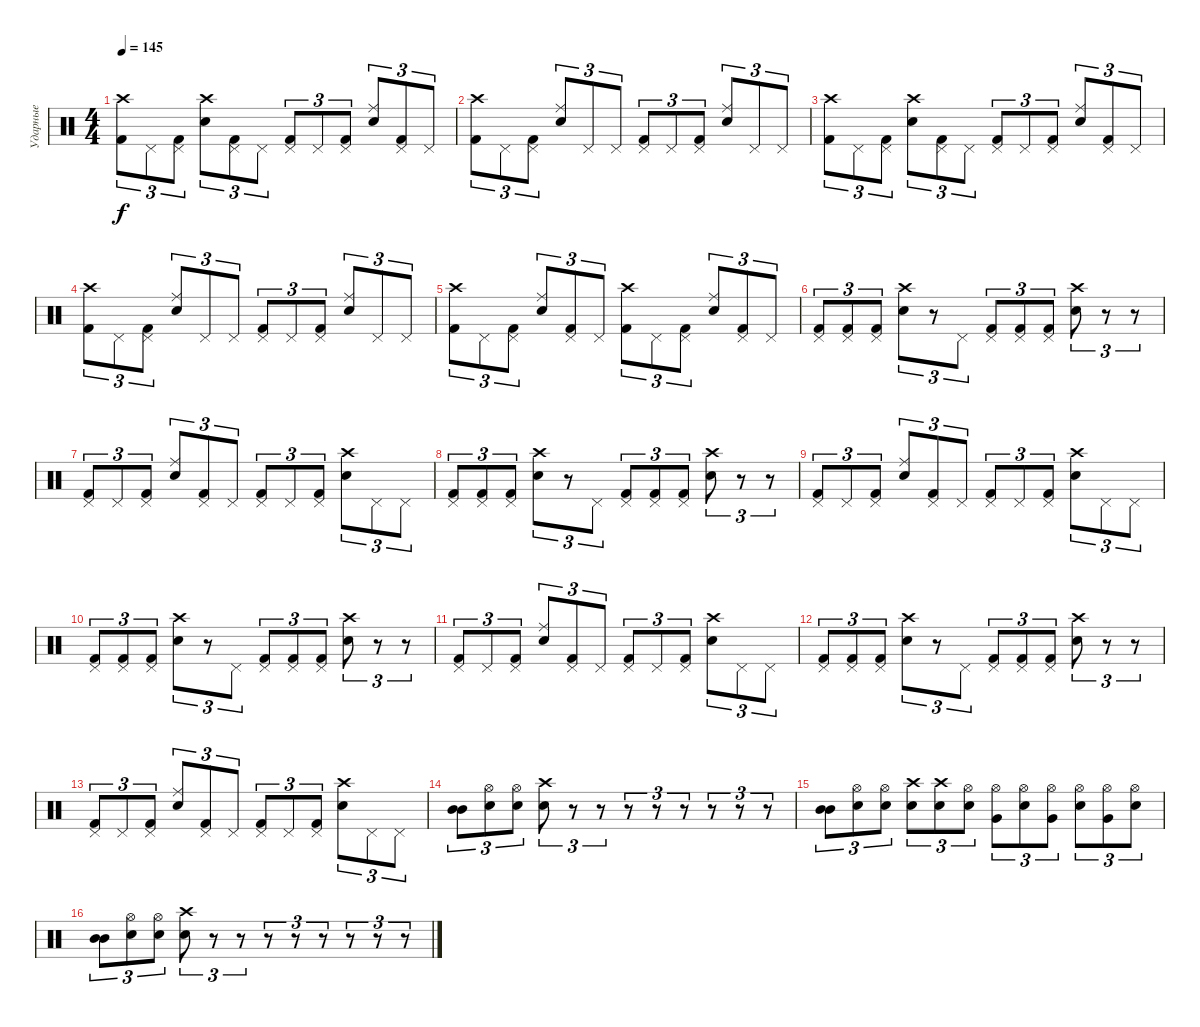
\track ("Ударные" "Ударные") {instrument percussion}
\staff {score}
\articulation defaults
\ts (4 4)
\tempo 145
\clef neutral
\ks c
("Kick (hit) 2" "Crash high (hit)").8{tu (3 2) dy f} "Pedal Hi-Hat (hit)".8{tu (3 2)} ("Kick (hit) 2" "Pedal Hi-Hat (hit)").8{tu (3 2)} ("Electric Snare (hit)" "Crash high (hit)").8{tu (3 2)} ("Kick (hit) 2" "Pedal Hi-Hat (hit)").8{tu (3 2)} "Pedal Hi-Hat (hit)".8{tu (3 2)} ("Kick (hit) 2" "Pedal Hi-Hat (hit)").8{tu (3 2)} "Pedal Hi-Hat (hit)".8{tu (3 2)} ("Pedal Hi-Hat (hit)" "Kick (hit) 2").8{tu (3 2)} ("Electric Snare (hit)" "Ride (middle)").8{tu (3 2)} ("Kick (hit) 2" "Pedal Hi-Hat (hit)").8{tu (3 2)} "Pedal Hi-Hat (hit)".8{tu (3 2)} |
("Kick (hit) 2" "Crash high (hit)").8{tu (3 2)} "Pedal Hi-Hat (hit)".8{tu (3 2)} ("Kick (hit) 2" "Pedal Hi-Hat (hit)").8{tu (3 2)} ("Electric Snare (hit)" "Ride (middle)").8{tu (3 2)} "Pedal Hi-Hat (hit)".8{tu (3 2)} "Pedal Hi-Hat (hit)".8{tu (3 2)} ("Kick (hit) 2" "Pedal Hi-Hat (hit)").8{tu (3 2)} "Pedal Hi-Hat (hit)".8{tu (3 2)} ("Pedal Hi-Hat (hit)" "Kick (hit) 2").8{tu (3 2)} ("Electric Snare (hit)" "Ride (middle)").8{tu (3 2)} "Pedal Hi-Hat (hit)".8{tu (3 2)} "Pedal Hi-Hat (hit)".8{tu (3 2)} |
("Kick (hit) 2" "Crash high (hit)").8{tu (3 2)} "Pedal Hi-Hat (hit)".8{tu (3 2)} ("Kick (hit) 2" "Pedal Hi-Hat (hit)").8{tu (3 2)} ("Electric Snare (hit)" "Crash high (hit)").8{tu (3 2)} ("Kick (hit) 2" "Pedal Hi-Hat (hit)").8{tu (3 2)} "Pedal Hi-Hat (hit)".8{tu (3 2)} ("Kick (hit) 2" "Pedal Hi-Hat (hit)").8{tu (3 2)} "Pedal Hi-Hat (hit)".8{tu (3 2)} ("Pedal Hi-Hat (hit)" "Kick (hit) 2").8{tu (3 2)} ("Electric Snare (hit)" "Ride (middle)").8{tu (3 2)} ("Kick (hit) 2" "Pedal Hi-Hat (hit)").8{tu (3 2)} "Pedal Hi-Hat (hit)".8{tu (3 2)} |
("Kick (hit) 2" "Crash high (hit)").8{tu (3 2)} "Pedal Hi-Hat (hit)".8{tu (3 2)} ("Kick (hit) 2" "Pedal Hi-Hat (hit)").8{tu (3 2)} ("Electric Snare (hit)" "Ride (middle)").8{tu (3 2)} "Pedal Hi-Hat (hit)".8{tu (3 2)} "Pedal Hi-Hat (hit)".8{tu (3 2)} ("Kick (hit) 2" "Pedal Hi-Hat (hit)").8{tu (3 2)} "Pedal Hi-Hat (hit)".8{tu (3 2)} ("Pedal Hi-Hat (hit)" "Kick (hit) 2").8{tu (3 2)} ("Electric Snare (hit)" "Ride (middle)").8{tu (3 2)} "Pedal Hi-Hat (hit)".8{tu (3 2)} "Pedal Hi-Hat (hit)".8{tu (3 2)} |
("Kick (hit) 2" "Crash high (hit)").8{tu (3 2)} "Pedal Hi-Hat (hit)".8{tu (3 2)} ("Kick (hit) 2" "Pedal Hi-Hat (hit)").8{tu (3 2)} ("Electric Snare (hit)" "Ride (middle)").8{tu (3 2)} ("Kick (hit) 2" "Pedal Hi-Hat (hit)").8{tu (3 2)} "Pedal Hi-Hat (hit)".8{tu (3 2)} ("Kick (hit) 2" "Crash high (hit)").8{tu (3 2)} "Pedal Hi-Hat (hit)".8{tu (3 2)} ("Pedal Hi-Hat (hit)" "Kick (hit) 2").8{tu (3 2)} ("Electric Snare (hit)" "Ride (middle)").8{tu (3 2)} ("Kick (hit) 2" "Pedal Hi-Hat (hit)").8{tu (3 2)} "Pedal Hi-Hat (hit)".8{tu (3 2)} |
("Kick (hit) 2" "Pedal Hi-Hat (hit)").8{tu (3 2)} ("Kick (hit) 2" "Pedal Hi-Hat (hit)").8{tu (3 2)} ("Kick (hit) 2" "Pedal Hi-Hat (hit)").8{tu (3 2)} ("Crash high (hit)" "Electric Snare (hit)").8{tu (3 2)} r.8{tu (3 2)} "Pedal Hi-Hat (hit)".8{tu (3 2)} ("Kick (hit) 2" "Pedal Hi-Hat (hit)").8{tu (3 2)} ("Kick (hit) 2" "Pedal Hi-Hat (hit)").8{tu (3 2)} ("Kick (hit) 2" "Pedal Hi-Hat (hit)").8{tu (3 2)} ("Electric Snare (hit)" "Crash high (hit)").8{tu (3 2)} r.8{tu (3 2)} r.8{tu (3 2)} |
("Kick (hit) 2" "Pedal Hi-Hat (hit)").8{tu (3 2)} "Pedal Hi-Hat (hit)".8{tu (3 2)} ("Kick (hit) 2" "Pedal Hi-Hat (hit)").8{tu (3 2)} ("Electric Snare (hit)" "Ride (middle)").8{tu (3 2)} ("Kick (hit) 2" "Pedal Hi-Hat (hit)").8{tu (3 2)} "Pedal Hi-Hat (hit)".8{tu (3 2)} ("Kick (hit) 2" "Pedal Hi-Hat (hit)").8{tu (3 2)} "Pedal Hi-Hat (hit)".8{tu (3 2)} ("Pedal Hi-Hat (hit)" "Kick (hit) 2").8{tu (3 2)} ("Electric Snare (hit)" "Crash high (hit)").8{tu (3 2)} "Pedal Hi-Hat (hit)".8{tu (3 2)} "Pedal Hi-Hat (hit)".8{tu (3 2)} |
("Kick (hit) 2" "Pedal Hi-Hat (hit)").8{tu (3 2)} ("Kick (hit) 2" "Pedal Hi-Hat (hit)").8{tu (3 2)} ("Kick (hit) 2" "Pedal Hi-Hat (hit)").8{tu (3 2)} ("Crash high (hit)" "Electric Snare (hit)").8{tu (3 2)} r.8{tu (3 2)} "Pedal Hi-Hat (hit)".8{tu (3 2)} ("Kick (hit) 2" "Pedal Hi-Hat (hit)").8{tu (3 2)} ("Kick (hit) 2" "Pedal Hi-Hat (hit)").8{tu (3 2)} ("Kick (hit) 2" "Pedal Hi-Hat (hit)").8{tu (3 2)} ("Electric Snare (hit)" "Crash high (hit)").8{tu (3 2)} r.8{tu (3 2)} r.8{tu (3 2)} |
("Kick (hit) 2" "Pedal Hi-Hat (hit)").8{tu (3 2)} "Pedal Hi-Hat (hit)".8{tu (3 2)} ("Kick (hit) 2" "Pedal Hi-Hat (hit)").8{tu (3 2)} ("Electric Snare (hit)" "Ride (middle)").8{tu (3 2)} ("Kick (hit) 2" "Pedal Hi-Hat (hit)").8{tu (3 2)} "Pedal Hi-Hat (hit)".8{tu (3 2)} ("Kick (hit) 2" "Pedal Hi-Hat (hit)").8{tu (3 2)} "Pedal Hi-Hat (hit)".8{tu (3 2)} ("Pedal Hi-Hat (hit)" "Kick (hit) 2").8{tu (3 2)} ("Electric Snare (hit)" "Crash high (hit)").8{tu (3 2)} "Pedal Hi-Hat (hit)".8{tu (3 2)} "Pedal Hi-Hat (hit)".8{tu (3 2)} |
("Kick (hit) 2" "Pedal Hi-Hat (hit)").8{tu (3 2)} ("Kick (hit) 2" "Pedal Hi-Hat (hit)").8{tu (3 2)} ("Kick (hit) 2" "Pedal Hi-Hat (hit)").8{tu (3 2)} ("Crash high (hit)" "Electric Snare (hit)").8{tu (3 2)} r.8{tu (3 2)} "Pedal Hi-Hat (hit)".8{tu (3 2)} ("Kick (hit) 2" "Pedal Hi-Hat (hit)").8{tu (3 2)} ("Kick (hit) 2" "Pedal Hi-Hat (hit)").8{tu (3 2)} ("Kick (hit) 2" "Pedal Hi-Hat (hit)").8{tu (3 2)} ("Electric Snare (hit)" "Crash high (hit)").8{tu (3 2)} r.8{tu (3 2)} r.8{tu (3 2)} |
("Kick (hit) 2" "Pedal Hi-Hat (hit)").8{tu (3 2)} "Pedal Hi-Hat (hit)".8{tu (3 2)} ("Kick (hit) 2" "Pedal Hi-Hat (hit)").8{tu (3 2)} ("Electric Snare (hit)" "Ride (middle)").8{tu (3 2)} ("Kick (hit) 2" "Pedal Hi-Hat (hit)").8{tu (3 2)} "Pedal Hi-Hat (hit)".8{tu (3 2)} ("Kick (hit) 2" "Pedal Hi-Hat (hit)").8{tu (3 2)} "Pedal Hi-Hat (hit)".8{tu (3 2)} ("Pedal Hi-Hat (hit)" "Kick (hit) 2").8{tu (3 2)} ("Electric Snare (hit)" "Crash high (hit)").8{tu (3 2)} "Pedal Hi-Hat (hit)".8{tu (3 2)} "Pedal Hi-Hat (hit)".8{tu (3 2)} |
("Kick (hit) 2" "Pedal Hi-Hat (hit)").8{tu (3 2)} ("Kick (hit) 2" "Pedal Hi-Hat (hit)").8{tu (3 2)} ("Kick (hit) 2" "Pedal Hi-Hat (hit)").8{tu (3 2)} ("Crash high (hit)" "Electric Snare (hit)").8{tu (3 2)} r.8{tu (3 2)} "Pedal Hi-Hat (hit)".8{tu (3 2)} ("Kick (hit) 2" "Pedal Hi-Hat (hit)").8{tu (3 2)} ("Kick (hit) 2" "Pedal Hi-Hat (hit)").8{tu (3 2)} ("Kick (hit) 2" "Pedal Hi-Hat (hit)").8{tu (3 2)} ("Electric Snare (hit)" "Crash high (hit)").8{tu (3 2)} r.8{tu (3 2)} r.8{tu (3 2)} |
("Kick (hit) 2" "Pedal Hi-Hat (hit)").8{tu (3 2)} "Pedal Hi-Hat (hit)".8{tu (3 2)} ("Kick (hit) 2" "Pedal Hi-Hat (hit)").8{tu (3 2)} ("Electric Snare (hit)" "Ride (middle)").8{tu (3 2)} ("Kick (hit) 2" "Pedal Hi-Hat (hit)").8{tu (3 2)} "Pedal Hi-Hat (hit)".8{tu (3 2)} ("Kick (hit) 2" "Pedal Hi-Hat (hit)").8{tu (3 2)} "Pedal Hi-Hat (hit)".8{tu (3 2)} ("Pedal Hi-Hat (hit)" "Kick (hit) 2").8{tu (3 2)} ("Electric Snare (hit)" "Crash high (hit)").8{tu (3 2)} "Pedal Hi-Hat (hit)".8{tu (3 2)} "Pedal Hi-Hat (hit)".8{tu (3 2)} |
("Mid Tom (hit)" "Mid Tom (hit)").8{tu (3 2)} ("Electric Snare (hit)" "Hi-Hat (open)").8{tu (3 2)} ("Electric Snare (hit)" "Hi-Hat (open)").8{tu (3 2)} ("Electric Snare (hit)" "Crash high (hit)").8{tu (3 2)} r.8{tu (3 2)} r.8{tu (3 2)} r.8{tu (3 2)} r.8{tu (3 2)} r.8{tu (3 2)} r.8{tu (3 2)} r.8{tu (3 2)} r.8{tu (3 2)} |
("Mid Tom (hit)" "Mid Tom (hit)").8{tu (3 2)} ("Electric Snare (hit)" "Hi-Hat (open)").8{tu (3 2)} ("Electric Snare (hit)" "Hi-Hat (open)").8{tu (3 2)} ("Electric Snare (hit)" "Crash high (hit)").8{tu (3 2)} ("Electric Snare (hit)" "Crash high (hit)").8{tu (3 2)} ("Hi-Hat (open)" "Electric Snare (hit)").8{tu (3 2)} ("Hi-Hat (open)" "Very Low Tom (hit)").8{tu (3 2)} ("Hi-Hat (open)" "Electric Snare (hit)").8{tu (3 2)} ("Hi-Hat (open)" "Very Low Tom (hit)").8{tu (3 2)} ("Hi-Hat (open)" "Electric Snare (hit)").8{tu (3 2)} ("Hi-Hat (open)" "Very Low Tom (hit)").8{tu (3 2)} ("Hi-Hat (open)" "Electric Snare (hit)").8{tu (3 2)} |
("Mid Tom (hit)" "Mid Tom (hit)").8{tu (3 2)} ("Electric Snare (hit)" "Hi-Hat (open)").8{tu (3 2)} ("Electric Snare (hit)" "Hi-Hat (open)").8{tu (3 2)} ("Electric Snare (hit)" "Crash high (hit)").8{tu (3 2)} r.8{tu (3 2)} r.8{tu (3 2)} r.8{tu (3 2)} r.8{tu (3 2)} r.8{tu (3 2)} r.8{tu (3 2)} r.8{tu (3 2)} r.8{tu (3 2)}
